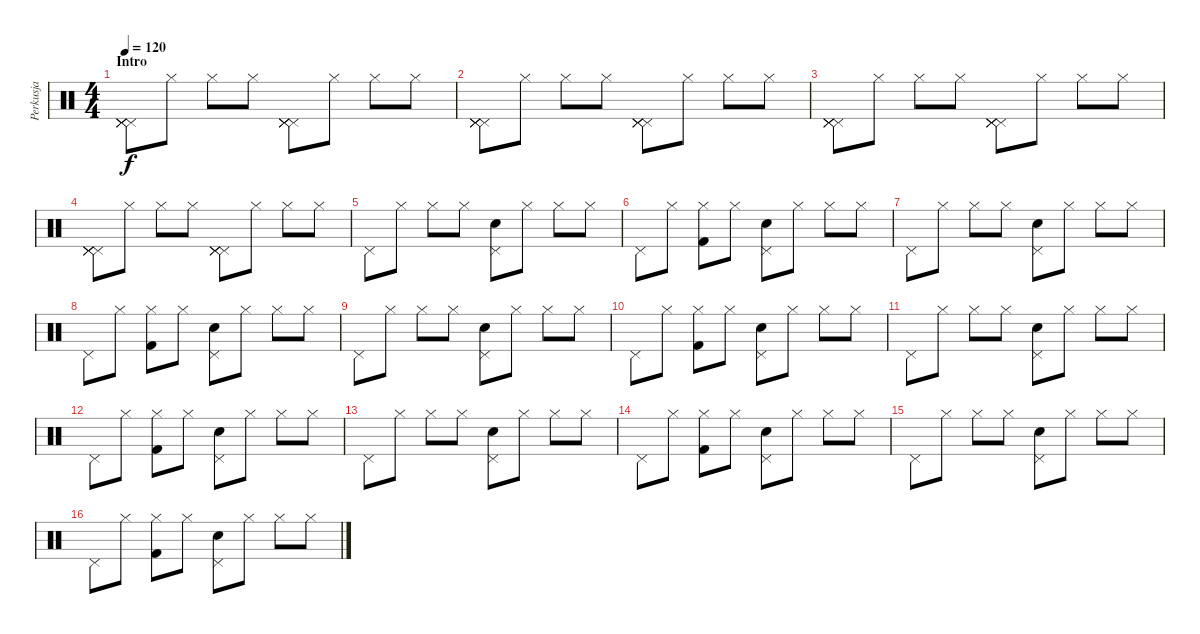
\track ("Perkusja" "Perkusja") {instrument percussion}
\staff {score}
\articulation defaults
\ts (4 4)
\section ("" "Intro")
\tempo 120
\clef neutral
\ks c
("Pedal Hi-Hat (hit)" "Pedal Hi-Hat (hit)" "Pedal Hi-Hat (hit)" "Pedal Hi-Hat (hit)").8{dy f} "Hi-Hat (closed)".8 "Hi-Hat (closed)".8 "Hi-Hat (closed)".8 ("Pedal Hi-Hat (hit)" "Pedal Hi-Hat (hit)" "Pedal Hi-Hat (hit)" "Pedal Hi-Hat (hit)").8 "Hi-Hat (closed)".8 "Hi-Hat (closed)".8 "Hi-Hat (closed)".8 |
("Pedal Hi-Hat (hit)" "Pedal Hi-Hat (hit)" "Pedal Hi-Hat (hit)" "Pedal Hi-Hat (hit)").8 "Hi-Hat (closed)".8 "Hi-Hat (closed)".8 "Hi-Hat (closed)".8 ("Pedal Hi-Hat (hit)" "Pedal Hi-Hat (hit)" "Pedal Hi-Hat (hit)" "Pedal Hi-Hat (hit)").8 "Hi-Hat (closed)".8 "Hi-Hat (closed)".8 "Hi-Hat (closed)".8 |
("Pedal Hi-Hat (hit)" "Pedal Hi-Hat (hit)" "Pedal Hi-Hat (hit)" "Pedal Hi-Hat (hit)").8 "Hi-Hat (closed)".8 "Hi-Hat (closed)".8 "Hi-Hat (closed)".8 ("Pedal Hi-Hat (hit)" "Pedal Hi-Hat (hit)" "Pedal Hi-Hat (hit)" "Pedal Hi-Hat (hit)").8 "Hi-Hat (closed)".8 "Hi-Hat (closed)".8 "Hi-Hat (closed)".8 |
("Pedal Hi-Hat (hit)" "Pedal Hi-Hat (hit)" "Pedal Hi-Hat (hit)" "Pedal Hi-Hat (hit)").8 "Hi-Hat (closed)".8 "Hi-Hat (closed)".8 "Hi-Hat (closed)".8 ("Pedal Hi-Hat (hit)" "Pedal Hi-Hat (hit)" "Pedal Hi-Hat (hit)" "Pedal Hi-Hat (hit)").8 "Hi-Hat (closed)".8 "Hi-Hat (closed)".8 "Hi-Hat (closed)".8 |
"Pedal Hi-Hat (hit)".8 "Hi-Hat (closed)".8 "Hi-Hat (closed)".8 "Hi-Hat (closed)".8 ("Pedal Hi-Hat (hit)" "Snare (hit) 2").8 "Hi-Hat (closed)".8 "Hi-Hat (closed)".8 "Hi-Hat (closed)".8 |
"Pedal Hi-Hat (hit)".8 "Hi-Hat (closed)".8 ("Hi-Hat (closed)" "Kick (hit) 2").8 "Hi-Hat (closed)".8 ("Pedal Hi-Hat (hit)" "Snare (hit) 2").8 "Hi-Hat (closed)".8 "Hi-Hat (closed)".8 "Hi-Hat (closed)".8 |
"Pedal Hi-Hat (hit)".8 "Hi-Hat (closed)".8 "Hi-Hat (closed)".8 "Hi-Hat (closed)".8 ("Pedal Hi-Hat (hit)" "Snare (hit) 2").8 "Hi-Hat (closed)".8 "Hi-Hat (closed)".8 "Hi-Hat (closed)".8 |
"Pedal Hi-Hat (hit)".8 "Hi-Hat (closed)".8 ("Hi-Hat (closed)" "Kick (hit) 2").8 "Hi-Hat (closed)".8 ("Pedal Hi-Hat (hit)" "Snare (hit) 2").8 "Hi-Hat (closed)".8 "Hi-Hat (closed)".8 "Hi-Hat (closed)".8 |
"Pedal Hi-Hat (hit)".8 "Hi-Hat (closed)".8 "Hi-Hat (closed)".8 "Hi-Hat (closed)".8 ("Pedal Hi-Hat (hit)" "Snare (hit) 2").8 "Hi-Hat (closed)".8 "Hi-Hat (closed)".8 "Hi-Hat (closed)".8 |
"Pedal Hi-Hat (hit)".8 "Hi-Hat (closed)".8 ("Hi-Hat (closed)" "Kick (hit) 2").8 "Hi-Hat (closed)".8 ("Pedal Hi-Hat (hit)" "Snare (hit) 2").8 "Hi-Hat (closed)".8 "Hi-Hat (closed)".8 "Hi-Hat (closed)".8 |
"Pedal Hi-Hat (hit)".8 "Hi-Hat (closed)".8 "Hi-Hat (closed)".8 "Hi-Hat (closed)".8 ("Pedal Hi-Hat (hit)" "Snare (hit) 2").8 "Hi-Hat (closed)".8 "Hi-Hat (closed)".8 "Hi-Hat (closed)".8 |
"Pedal Hi-Hat (hit)".8 "Hi-Hat (closed)".8 ("Hi-Hat (closed)" "Kick (hit) 2").8 "Hi-Hat (closed)".8 ("Pedal Hi-Hat (hit)" "Snare (hit) 2").8 "Hi-Hat (closed)".8 "Hi-Hat (closed)".8 "Hi-Hat (closed)".8 |
"Pedal Hi-Hat (hit)".8 "Hi-Hat (closed)".8 "Hi-Hat (closed)".8 "Hi-Hat (closed)".8 ("Pedal Hi-Hat (hit)" "Snare (hit) 2").8 "Hi-Hat (closed)".8 "Hi-Hat (closed)".8 "Hi-Hat (closed)".8 |
"Pedal Hi-Hat (hit)".8 "Hi-Hat (closed)".8 ("Hi-Hat (closed)" "Kick (hit) 2").8 "Hi-Hat (closed)".8 ("Pedal Hi-Hat (hit)" "Snare (hit) 2").8 "Hi-Hat (closed)".8 "Hi-Hat (closed)".8 "Hi-Hat (closed)".8 |
"Pedal Hi-Hat (hit)".8 "Hi-Hat (closed)".8 "Hi-Hat (closed)".8 "Hi-Hat (closed)".8 ("Pedal Hi-Hat (hit)" "Snare (hit) 2").8 "Hi-Hat (closed)".8 "Hi-Hat (closed)".8 "Hi-Hat (closed)".8 |
"Pedal Hi-Hat (hit)".8 "Hi-Hat (closed)".8 ("Hi-Hat (closed)" "Kick (hit) 2").8 "Hi-Hat (closed)".8 ("Pedal Hi-Hat (hit)" "Snare (hit) 2").8 "Hi-Hat (closed)".8 "Hi-Hat (closed)".8 "Hi-Hat (closed)".8
